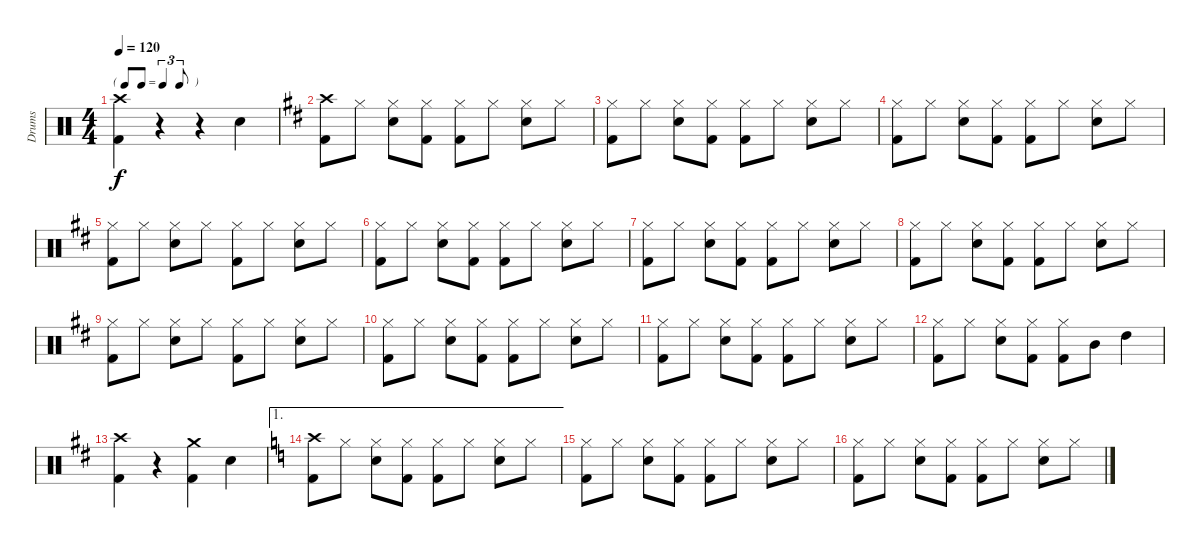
\track ("Drums" "Drums") {instrument percussion}
\staff {score}
\articulation defaults
\ts (4 4)
\tf triplet8th
\tempo 120
\clef neutral
\ks c
("Kick (hit) 2" "Crash high (hit)").4{dy f} r.4 r.4 "Snare (hit) 2".4 |
\ks d
("Kick (hit) 2" "Crash high (hit)").8 "Hi-Hat (closed)".8 ("Snare (hit) 2" "Hi-Hat (closed)").8 ("Kick (hit) 2" "Hi-Hat (closed)").8 ("Kick (hit) 2" "Hi-Hat (closed)").8 "Hi-Hat (closed)".8 ("Snare (hit) 2" "Hi-Hat (closed)").8 "Hi-Hat (closed)".8 |
("Kick (hit) 2" "Hi-Hat (closed)").8 "Hi-Hat (closed)".8 ("Snare (hit) 2" "Hi-Hat (closed)").8 ("Kick (hit) 2" "Hi-Hat (closed)").8 ("Kick (hit) 2" "Hi-Hat (closed)").8 "Hi-Hat (closed)".8 ("Snare (hit) 2" "Hi-Hat (closed)").8 "Hi-Hat (closed)".8 |
("Kick (hit) 2" "Hi-Hat (closed)").8 "Hi-Hat (closed)".8 ("Snare (hit) 2" "Hi-Hat (closed)").8 ("Kick (hit) 2" "Hi-Hat (closed)").8 ("Kick (hit) 2" "Hi-Hat (closed)").8 "Hi-Hat (closed)".8 ("Snare (hit) 2" "Hi-Hat (closed)").8 "Hi-Hat (closed)".8 |
("Kick (hit) 2" "Hi-Hat (closed)").8 "Hi-Hat (closed)".8 ("Snare (hit) 2" "Hi-Hat (closed)").8 "Hi-Hat (closed)".8 ("Kick (hit) 2" "Hi-Hat (closed)").8 "Hi-Hat (closed)".8 ("Snare (hit) 2" "Hi-Hat (closed)").8 "Hi-Hat (closed)".8 |
("Kick (hit) 2" "Hi-Hat (closed)").8 "Hi-Hat (closed)".8 ("Snare (hit) 2" "Hi-Hat (closed)").8 ("Kick (hit) 2" "Hi-Hat (closed)").8 ("Kick (hit) 2" "Hi-Hat (closed)").8 "Hi-Hat (closed)".8 ("Snare (hit) 2" "Hi-Hat (closed)").8 "Hi-Hat (closed)".8 |
("Kick (hit) 2" "Hi-Hat (closed)").8 "Hi-Hat (closed)".8 ("Snare (hit) 2" "Hi-Hat (closed)").8 ("Kick (hit) 2" "Hi-Hat (closed)").8 ("Kick (hit) 2" "Hi-Hat (closed)").8 "Hi-Hat (closed)".8 ("Snare (hit) 2" "Hi-Hat (closed)").8 "Hi-Hat (closed)".8 |
("Kick (hit) 2" "Hi-Hat (closed)").8 "Hi-Hat (closed)".8 ("Snare (hit) 2" "Hi-Hat (closed)").8 ("Kick (hit) 2" "Hi-Hat (closed)").8 ("Kick (hit) 2" "Hi-Hat (closed)").8 "Hi-Hat (closed)".8 ("Snare (hit) 2" "Hi-Hat (closed)").8 "Hi-Hat (closed)".8 |
("Kick (hit) 2" "Hi-Hat (closed)").8 "Hi-Hat (closed)".8 ("Snare (hit) 2" "Hi-Hat (closed)").8 "Hi-Hat (closed)".8 ("Kick (hit) 2" "Hi-Hat (closed)").8 "Hi-Hat (closed)".8 ("Snare (hit) 2" "Hi-Hat (closed)").8 "Hi-Hat (closed)".8 |
("Kick (hit) 2" "Hi-Hat (closed)").8 "Hi-Hat (closed)".8 ("Snare (hit) 2" "Hi-Hat (closed)").8 ("Kick (hit) 2" "Hi-Hat (closed)").8 ("Kick (hit) 2" "Hi-Hat (closed)").8 "Hi-Hat (closed)".8 ("Snare (hit) 2" "Hi-Hat (closed)").8 "Hi-Hat (closed)".8 |
("Kick (hit) 2" "Hi-Hat (closed)").8 "Hi-Hat (closed)".8 ("Snare (hit) 2" "Hi-Hat (closed)").8 ("Kick (hit) 2" "Hi-Hat (closed)").8 ("Kick (hit) 2" "Hi-Hat (closed)").8 "Hi-Hat (closed)".8 ("Snare (hit) 2" "Hi-Hat (closed)").8 "Hi-Hat (closed)".8 |
("Kick (hit) 2" "Hi-Hat (closed)").8 "Hi-Hat (closed)".8 ("Snare (hit) 2" "Hi-Hat (closed)").8 ("Kick (hit) 2" "Hi-Hat (closed)").8 ("Kick (hit) 2" "Hi-Hat (closed)").8 "Mid Tom (hit)".8 "High Tom (hit)".4 |
("Kick (hit) 2" "Crash high (hit)").4 r.4 ("Kick (hit) 2" "Crash medium (hit)").4 "Snare (hit) 2".4 |
\ae 1
\ks c
("Kick (hit) 2" "Crash high (hit)").8 "Hi-Hat (closed)".8 ("Snare (hit) 2" "Hi-Hat (closed)").8 ("Kick (hit) 2" "Hi-Hat (closed)").8 ("Kick (hit) 2" "Hi-Hat (closed)").8 "Hi-Hat (closed)".8 ("Snare (hit) 2" "Hi-Hat (closed)").8 "Hi-Hat (closed)".8 |
("Kick (hit) 2" "Hi-Hat (closed)").8 "Hi-Hat (closed)".8 ("Snare (hit) 2" "Hi-Hat (closed)").8 ("Kick (hit) 2" "Hi-Hat (closed)").8 ("Kick (hit) 2" "Hi-Hat (closed)").8 "Hi-Hat (closed)".8 ("Snare (hit) 2" "Hi-Hat (closed)").8 "Hi-Hat (closed)".8 |
("Kick (hit) 2" "Hi-Hat (closed)").8 "Hi-Hat (closed)".8 ("Snare (hit) 2" "Hi-Hat (closed)").8 ("Kick (hit) 2" "Hi-Hat (closed)").8 ("Kick (hit) 2" "Hi-Hat (closed)").8 "Hi-Hat (closed)".8 ("Snare (hit) 2" "Hi-Hat (closed)").8 "Hi-Hat (closed)".8
